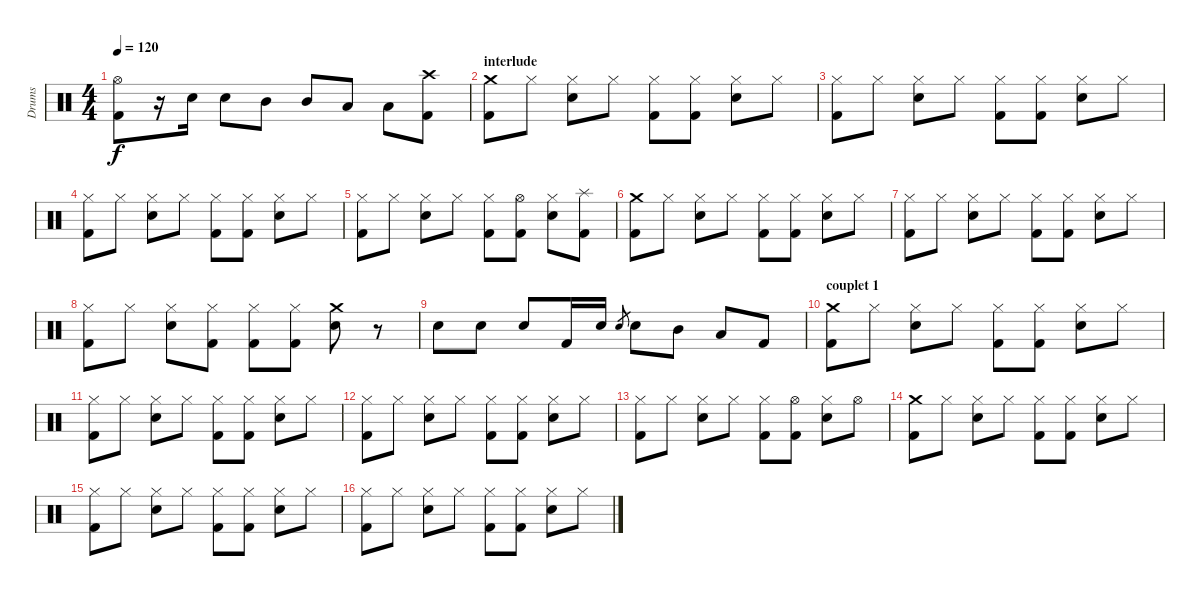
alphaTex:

\track ("Drums" "Drums") {instrument percussion}
\staff {score}
\articulation defaults
\ts (4 4)
\tempo 120
\clef neutral
\ks c
("Hi-Hat (open)" "Kick (hit) 2").8{dy f} r.16 "Snare (hit) 2".16 "Snare (hit) 2".8 "Mid Tom (hit)".8 "Mid Tom (hit)".8 "Low Tom (hit)".8 "Low Tom (hit)".8 ("Crash high (hit)" "Kick (hit) 2").8 |
\section ("" "interlude")
("Crash medium (hit)" "Kick (hit) 2").8 "Hi-Hat (closed)".8 ("Hi-Hat (closed)" "Snare (hit) 2").8 "Hi-Hat (closed)".8 ("Hi-Hat (closed)" "Kick (hit) 2").8 ("Hi-Hat (closed)" "Kick (hit) 2").8 ("Hi-Hat (closed)" "Snare (hit) 2").8 "Hi-Hat (closed)".8 |
("Hi-Hat (closed)" "Kick (hit) 2").8 "Hi-Hat (closed)".8 ("Hi-Hat (closed)" "Snare (hit) 2").8 "Hi-Hat (closed)".8 ("Hi-Hat (closed)" "Kick (hit) 2").8 ("Hi-Hat (closed)" "Kick (hit) 2").8 ("Hi-Hat (closed)" "Snare (hit) 2").8 "Hi-Hat (closed)".8 |
("Hi-Hat (closed)" "Kick (hit) 2").8 "Hi-Hat (closed)".8 ("Hi-Hat (closed)" "Snare (hit) 2").8 "Hi-Hat (closed)".8 ("Hi-Hat (closed)" "Kick (hit) 2").8 ("Hi-Hat (closed)" "Kick (hit) 2").8 ("Hi-Hat (closed)" "Snare (hit) 2").8 "Hi-Hat (closed)".8 |
("Hi-Hat (closed)" "Kick (hit) 2").8 "Hi-Hat (closed)".8 ("Hi-Hat (closed)" "Snare (hit) 2").8 "Hi-Hat (closed)".8 ("Hi-Hat (closed)" "Kick (hit) 2").8 ("Hi-Hat (open)" "Kick (hit) 2").8 ("Hi-Hat (closed)" "Snare (hit) 2").8 ("Splash (hit)" "Kick (hit) 2").8 |
("Crash medium (hit)" "Kick (hit) 2").8 "Hi-Hat (closed)".8 ("Hi-Hat (closed)" "Snare (hit) 2").8 "Hi-Hat (closed)".8 ("Hi-Hat (closed)" "Kick (hit) 2").8 ("Hi-Hat (closed)" "Kick (hit) 2").8 ("Hi-Hat (closed)" "Snare (hit) 2").8 "Hi-Hat (closed)".8 |
("Hi-Hat (closed)" "Kick (hit) 2").8 "Hi-Hat (closed)".8 ("Hi-Hat (closed)" "Snare (hit) 2").8 "Hi-Hat (closed)".8 ("Hi-Hat (closed)" "Kick (hit) 2").8 ("Hi-Hat (closed)" "Kick (hit) 2").8 ("Hi-Hat (closed)" "Snare (hit) 2").8 "Hi-Hat (closed)".8 |
("Hi-Hat (closed)" "Kick (hit) 2").8 "Hi-Hat (closed)".8 ("Hi-Hat (closed)" "Snare (hit) 2").8 ("Hi-Hat (closed)" "Kick (hit) 2").8 ("Hi-Hat (closed)" "Kick (hit) 2").8 ("Hi-Hat (closed)" "Kick (hit) 2").8 ("Crash medium (hit)" "Snare (hit) 2").8 r.8 |
"Snare (hit) 2".8 "Snare (hit) 2".8 "Snare (hit) 2".8 "Kick (hit) 2".16 "Snare (hit) 2".16 "Snare (hit) 2".8{gr} "Snare (hit) 2".8 "Mid Tom (hit)".8 "Low Tom (hit)".8 "Kick (hit) 2".8 |
\section ("" "couplet 1")
("Crash medium (hit)" "Kick (hit) 2").8 "Hi-Hat (closed)".8 ("Hi-Hat (closed)" "Snare (hit) 2").8 "Hi-Hat (closed)".8 ("Hi-Hat (closed)" "Kick (hit) 2").8 ("Hi-Hat (closed)" "Kick (hit) 2").8 ("Hi-Hat (closed)" "Snare (hit) 2").8 "Hi-Hat (closed)".8 |
("Hi-Hat (closed)" "Kick (hit) 2").8 "Hi-Hat (closed)".8 ("Hi-Hat (closed)" "Snare (hit) 2").8 "Hi-Hat (closed)".8 ("Hi-Hat (closed)" "Kick (hit) 2").8 ("Hi-Hat (closed)" "Kick (hit) 2").8 ("Hi-Hat (closed)" "Snare (hit) 2").8 "Hi-Hat (closed)".8 |
("Hi-Hat (closed)" "Kick (hit) 2").8 "Hi-Hat (closed)".8 ("Hi-Hat (closed)" "Snare (hit) 2").8 "Hi-Hat (closed)".8 ("Hi-Hat (closed)" "Kick (hit) 2").8 ("Hi-Hat (closed)" "Kick (hit) 2").8 ("Hi-Hat (closed)" "Snare (hit) 2").8 "Hi-Hat (closed)".8 |
("Hi-Hat (closed)" "Kick (hit) 2").8 "Hi-Hat (closed)".8 ("Hi-Hat (closed)" "Snare (hit) 2").8 "Hi-Hat (closed)".8 ("Hi-Hat (closed)" "Kick (hit) 2").8 ("Hi-Hat (open)" "Kick (hit) 2").8 ("Hi-Hat (closed)" "Snare (hit) 2").8 "Hi-Hat (open)".8 |
("Crash medium (hit)" "Kick (hit) 2").8 "Hi-Hat (closed)".8 ("Hi-Hat (closed)" "Snare (hit) 2").8 "Hi-Hat (closed)".8 ("Hi-Hat (closed)" "Kick (hit) 2").8 ("Hi-Hat (closed)" "Kick (hit) 2").8 ("Hi-Hat (closed)" "Snare (hit) 2").8 "Hi-Hat (closed)".8 |
("Hi-Hat (closed)" "Kick (hit) 2").8 "Hi-Hat (closed)".8 ("Hi-Hat (closed)" "Snare (hit) 2").8 "Hi-Hat (closed)".8 ("Hi-Hat (closed)" "Kick (hit) 2").8 ("Hi-Hat (closed)" "Kick (hit) 2").8 ("Hi-Hat (closed)" "Snare (hit) 2").8 "Hi-Hat (closed)".8 |
("Hi-Hat (closed)" "Kick (hit) 2").8 "Hi-Hat (closed)".8 ("Hi-Hat (closed)" "Snare (hit) 2").8 "Hi-Hat (closed)".8 ("Hi-Hat (closed)" "Kick (hit) 2").8 ("Hi-Hat (closed)" "Kick (hit) 2").8 ("Hi-Hat (closed)" "Snare (hit) 2").8 "Hi-Hat (closed)".8
